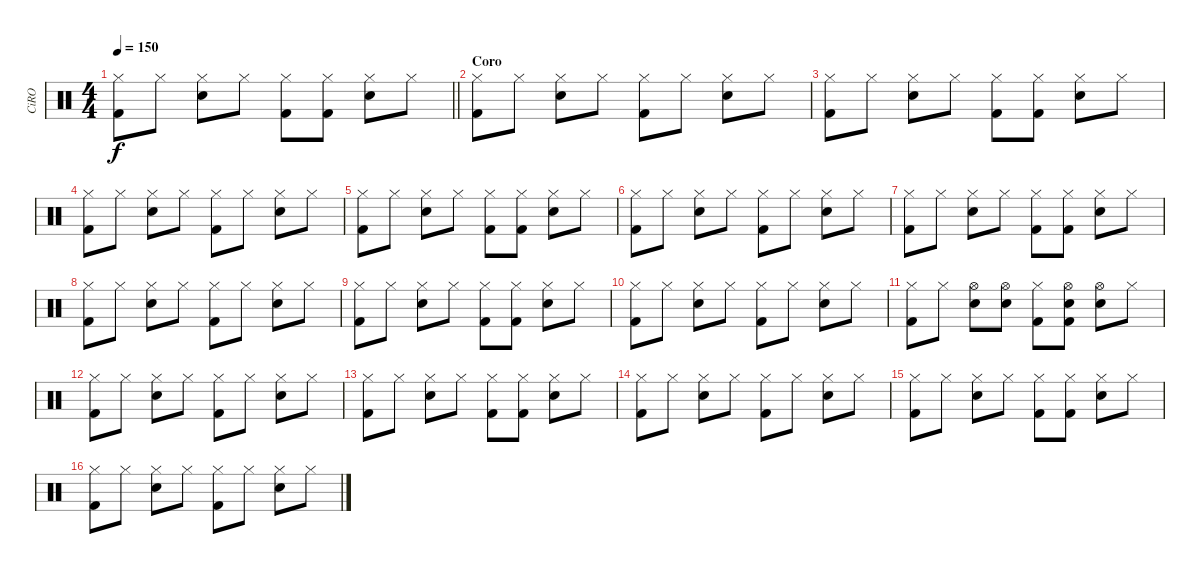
\track ("CiRO" "CiRO") {instrument percussion}
\staff {score}
\articulation defaults
\ts (4 4)
\tempo 150
\clef neutral
\barLineRight lightlight
\ks c
("Hi-Hat (closed)" "Kick (hit) 2").8{dy f} "Hi-Hat (closed)".8 ("Hi-Hat (closed)" "Electric Snare (hit)").8 "Hi-Hat (closed)".8 ("Hi-Hat (closed)" "Kick (hit) 2").8 ("Hi-Hat (closed)" "Kick (hit) 2").8 ("Hi-Hat (closed)" "Electric Snare (hit)").8 "Hi-Hat (closed)".8 |
\section ("" "Coro")
("Hi-Hat (closed)" "Kick (hit) 2").8 "Hi-Hat (closed)".8 ("Hi-Hat (closed)" "Electric Snare (hit)").8 "Hi-Hat (closed)".8 ("Hi-Hat (closed)" "Kick (hit) 2").8 "Hi-Hat (closed)".8 ("Hi-Hat (closed)" "Electric Snare (hit)").8 "Hi-Hat (closed)".8 |
("Hi-Hat (closed)" "Kick (hit) 2").8 "Hi-Hat (closed)".8 ("Hi-Hat (closed)" "Electric Snare (hit)").8 "Hi-Hat (closed)".8 ("Hi-Hat (closed)" "Kick (hit) 2").8 ("Hi-Hat (closed)" "Kick (hit) 2").8 ("Hi-Hat (closed)" "Electric Snare (hit)").8 "Hi-Hat (closed)".8 |
("Hi-Hat (closed)" "Kick (hit) 2").8 "Hi-Hat (closed)".8 ("Hi-Hat (closed)" "Electric Snare (hit)").8 "Hi-Hat (closed)".8 ("Hi-Hat (closed)" "Kick (hit) 2").8 "Hi-Hat (closed)".8 ("Hi-Hat (closed)" "Electric Snare (hit)").8 "Hi-Hat (closed)".8 |
("Hi-Hat (closed)" "Kick (hit) 2").8 "Hi-Hat (closed)".8 ("Hi-Hat (closed)" "Electric Snare (hit)").8 "Hi-Hat (closed)".8 ("Hi-Hat (closed)" "Kick (hit) 2").8 ("Hi-Hat (closed)" "Kick (hit) 2").8 ("Hi-Hat (closed)" "Electric Snare (hit)").8 "Hi-Hat (closed)".8 |
("Hi-Hat (closed)" "Kick (hit) 2").8 "Hi-Hat (closed)".8 ("Hi-Hat (closed)" "Electric Snare (hit)").8 "Hi-Hat (closed)".8 ("Hi-Hat (closed)" "Kick (hit) 2").8 "Hi-Hat (closed)".8 ("Hi-Hat (closed)" "Electric Snare (hit)").8 "Hi-Hat (closed)".8 |
("Hi-Hat (closed)" "Kick (hit) 2").8 "Hi-Hat (closed)".8 ("Hi-Hat (closed)" "Electric Snare (hit)").8 "Hi-Hat (closed)".8 ("Hi-Hat (closed)" "Kick (hit) 2").8 ("Hi-Hat (closed)" "Kick (hit) 2").8 ("Hi-Hat (closed)" "Electric Snare (hit)").8 "Hi-Hat (closed)".8 |
("Hi-Hat (closed)" "Kick (hit) 2").8 "Hi-Hat (closed)".8 ("Hi-Hat (closed)" "Electric Snare (hit)").8 "Hi-Hat (closed)".8 ("Hi-Hat (closed)" "Kick (hit) 2").8 "Hi-Hat (closed)".8 ("Hi-Hat (closed)" "Electric Snare (hit)").8 "Hi-Hat (closed)".8 |
("Hi-Hat (closed)" "Kick (hit) 2").8 "Hi-Hat (closed)".8 ("Hi-Hat (closed)" "Electric Snare (hit)").8 "Hi-Hat (closed)".8 ("Hi-Hat (closed)" "Kick (hit) 2").8 ("Hi-Hat (closed)" "Kick (hit) 2").8 ("Hi-Hat (closed)" "Electric Snare (hit)").8 "Hi-Hat (closed)".8 |
("Hi-Hat (closed)" "Kick (hit) 2").8 "Hi-Hat (closed)".8 ("Hi-Hat (closed)" "Electric Snare (hit)").8 "Hi-Hat (closed)".8 ("Hi-Hat (closed)" "Kick (hit) 2").8 "Hi-Hat (closed)".8 ("Hi-Hat (closed)" "Electric Snare (hit)").8 "Hi-Hat (closed)".8 |
("Hi-Hat (closed)" "Kick (hit) 2").8 "Hi-Hat (closed)".8 ("Hi-Hat (open)" "Electric Snare (hit)").8 ("Hi-Hat (open)" "Electric Snare (hit)").8 ("Hi-Hat (closed)" "Kick (hit) 2").8 ("Hi-Hat (open)" "Electric Snare (hit)" "Kick (hit) 2").8 ("Hi-Hat (open)" "Electric Snare (hit)").8 "Hi-Hat (closed)".8 |
("Hi-Hat (closed)" "Kick (hit) 2").8 "Hi-Hat (closed)".8 ("Hi-Hat (closed)" "Electric Snare (hit)").8 "Hi-Hat (closed)".8 ("Hi-Hat (closed)" "Kick (hit) 2").8 "Hi-Hat (closed)".8 ("Hi-Hat (closed)" "Electric Snare (hit)").8 "Hi-Hat (closed)".8 |
("Hi-Hat (closed)" "Kick (hit) 2").8 "Hi-Hat (closed)".8 ("Hi-Hat (closed)" "Electric Snare (hit)").8 "Hi-Hat (closed)".8 ("Hi-Hat (closed)" "Kick (hit) 2").8 ("Hi-Hat (closed)" "Kick (hit) 2").8 ("Hi-Hat (closed)" "Electric Snare (hit)").8 "Hi-Hat (closed)".8 |
("Hi-Hat (closed)" "Kick (hit) 2").8 "Hi-Hat (closed)".8 ("Hi-Hat (closed)" "Electric Snare (hit)").8 "Hi-Hat (closed)".8 ("Hi-Hat (closed)" "Kick (hit) 2").8 "Hi-Hat (closed)".8 ("Hi-Hat (closed)" "Electric Snare (hit)").8 "Hi-Hat (closed)".8 |
("Hi-Hat (closed)" "Kick (hit) 2").8 "Hi-Hat (closed)".8 ("Hi-Hat (closed)" "Electric Snare (hit)").8 "Hi-Hat (closed)".8 ("Hi-Hat (closed)" "Kick (hit) 2").8 ("Hi-Hat (closed)" "Kick (hit) 2").8 ("Hi-Hat (closed)" "Electric Snare (hit)").8 "Hi-Hat (closed)".8 |
("Hi-Hat (closed)" "Kick (hit) 2").8 "Hi-Hat (closed)".8 ("Hi-Hat (closed)" "Electric Snare (hit)").8 "Hi-Hat (closed)".8 ("Hi-Hat (closed)" "Kick (hit) 2").8 "Hi-Hat (closed)".8 ("Hi-Hat (closed)" "Electric Snare (hit)").8 "Hi-Hat (closed)".8
